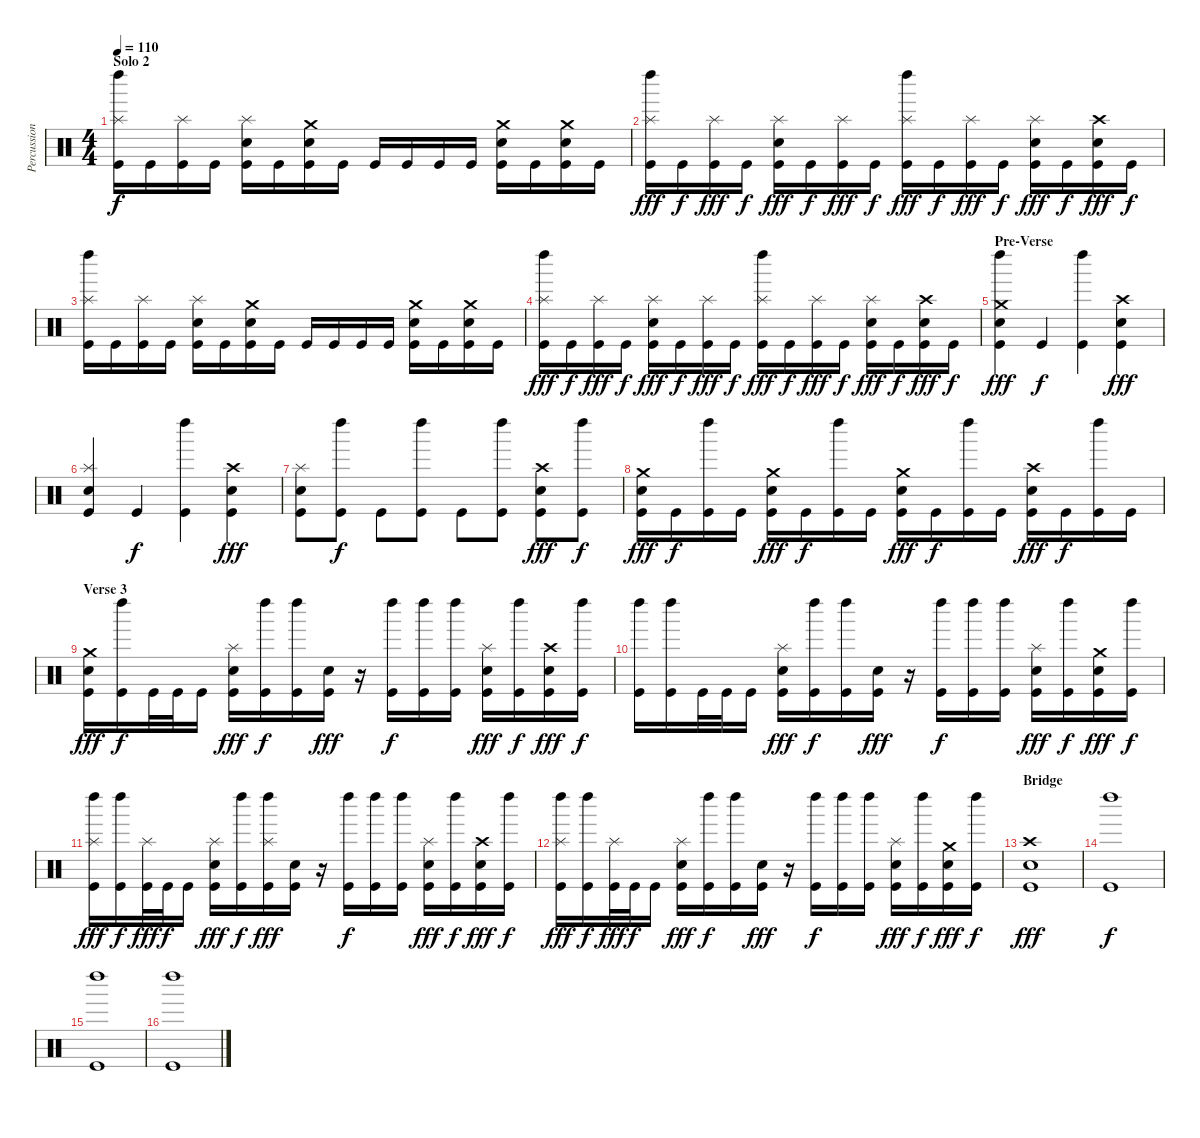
\track ("Percussions" "Percussion") {instrument percussion}
\staff {score}
\articulation defaults
\ts (4 4)
\section ("" "Solo 2")
\tempo 110
\clef neutral
\ks c
("Kick (hit)" "Splash (hit)" "Left Maraca (hit)").16{dy f} "Kick (hit)".16 ("Kick (hit)" "Splash (hit)").16 "Kick (hit)".16 ("Kick (hit)" "Splash (hit)" "Electric Snare (hit)").16 "Kick (hit)".16 ("Kick (hit)" "Electric Snare (hit)" "Crash medium (hit)").16 "Kick (hit)".16 "Kick (hit)".16 "Kick (hit)".16 "Kick (hit)".16 "Kick (hit)".16 ("Kick (hit)" "Electric Snare (hit)" "Crash medium (hit)").16 "Kick (hit)".16 ("Kick (hit)" "Electric Snare (hit)" "Crash medium (hit)").16 "Kick (hit)".16 |
("Kick (hit)" "Splash (hit)" "Left Maraca (hit)").16{dy fff} "Kick (hit)".16{dy f} ("Kick (hit)" "Splash (hit)").16{dy fff} "Kick (hit)".16{dy f} ("Kick (hit)" "Splash (hit)" "Electric Snare (hit)").16{dy fff} "Kick (hit)".16{dy f} ("Kick (hit)" "Splash (hit)").16{dy fff} "Kick (hit)".16{dy f} ("Kick (hit)" "Splash (hit)" "Left Maraca (hit)").16{dy fff} "Kick (hit)".16{dy f} ("Kick (hit)" "Splash (hit)").16{dy fff} "Kick (hit)".16{dy f} ("Kick (hit)" "Splash (hit)" "Electric Snare (hit)").16{dy fff} "Kick (hit)".16{dy f} ("Kick (hit)" "Crash high (hit)" "Electric Snare (hit)").16{dy fff} "Kick (hit)".16{dy f} |
("Kick (hit)" "Splash (hit)" "Left Maraca (hit)").16 "Kick (hit)".16 ("Kick (hit)" "Splash (hit)").16 "Kick (hit)".16 ("Kick (hit)" "Splash (hit)" "Electric Snare (hit)").16 "Kick (hit)".16 ("Kick (hit)" "Electric Snare (hit)" "Crash medium (hit)").16 "Kick (hit)".16 "Kick (hit)".16 "Kick (hit)".16 "Kick (hit)".16 "Kick (hit)".16 ("Kick (hit)" "Electric Snare (hit)" "Crash medium (hit)").16 "Kick (hit)".16 ("Kick (hit)" "Electric Snare (hit)" "Crash medium (hit)").16 "Kick (hit)".16 |
("Kick (hit)" "Splash (hit)" "Left Maraca (hit)").16{dy fff} "Kick (hit)".16{dy f} ("Kick (hit)" "Splash (hit)").16{dy fff} "Kick (hit)".16{dy f} ("Kick (hit)" "Splash (hit)" "Electric Snare (hit)").16{dy fff} "Kick (hit)".16{dy f} ("Kick (hit)" "Splash (hit)").16{dy fff} "Kick (hit)".16{dy f} ("Kick (hit)" "Splash (hit)" "Left Maraca (hit)").16{dy fff} "Kick (hit)".16{dy f} ("Kick (hit)" "Splash (hit)").16{dy fff} "Kick (hit)".16{dy f} ("Kick (hit)" "Splash (hit)" "Electric Snare (hit)").16{dy fff} "Kick (hit)".16{dy f} ("Kick (hit)" "Crash high (hit)" "Electric Snare (hit)").16{dy fff} "Kick (hit)".16{dy f} |
\section ("" "Pre-Verse")
("Kick (hit)" "Left Maraca (hit)" "Electric Snare (hit)" "Crash medium (hit)").4{dy fff} "Kick (hit)".4{dy f} ("Kick (hit)" "Left Maraca (hit)").4 ("Kick (hit)" "Electric Snare (hit)" "Crash high (hit)").4{dy fff} |
("Kick (hit)" "Electric Snare (hit)" "Splash (hit)").4 "Kick (hit)".4{dy f} ("Kick (hit)" "Left Maraca (hit)").4 ("Kick (hit)" "Electric Snare (hit)" "Crash high (hit)").4{dy fff} |
("Kick (hit)" "Electric Snare (hit)" "Splash (hit)").8 ("Kick (hit)" "Left Maraca (hit)").8{dy f} "Kick (hit)".8 ("Kick (hit)" "Left Maraca (hit)").8 "Kick (hit)".8 ("Kick (hit)" "Left Maraca (hit)").8 ("Kick (hit)" "Electric Snare (hit)" "Crash high (hit)").8{dy fff} ("Kick (hit)" "Left Maraca (hit)").8{dy f} |
("Kick (hit)" "Electric Snare (hit)" "Crash medium (hit)").16{dy fff} "Kick (hit)".16{dy f} ("Kick (hit)" "Left Maraca (hit)").16 "Kick (hit)".16 ("Kick (hit)" "Electric Snare (hit)" "Crash medium (hit)").16{dy fff} "Kick (hit)".16{dy f} ("Kick (hit)" "Left Maraca (hit)").16 "Kick (hit)".16 ("Kick (hit)" "Electric Snare (hit)" "Crash medium (hit)").16{dy fff} "Kick (hit)".16{dy f} ("Kick (hit)" "Left Maraca (hit)").16 "Kick (hit)".16 ("Kick (hit)" "Electric Snare (hit)" "Crash high (hit)").16{dy fff} "Kick (hit)".16{dy f} ("Kick (hit)" "Left Maraca (hit)").16 "Kick (hit)".16 |
\section ("" "Verse 3")
("Kick (hit)" "Electric Snare (hit)" "Crash medium (hit)").16{dy fff} ("Kick (hit)" "Left Maraca (hit)").16{dy f} "Kick (hit)".32 "Kick (hit)".32 "Kick (hit)".16 ("Kick (hit)" "Electric Snare (hit)" "Splash (hit)").16{dy fff} ("Kick (hit)" "Left Maraca (hit)").16{dy f} ("Kick (hit)" "Left Maraca (hit)").16 ("Kick (hit)" "Electric Snare (hit)").16{dy fff} r.16 ("Kick (hit)" "Left Maraca (hit)").16{dy f} ("Kick (hit)" "Left Maraca (hit)").16 ("Kick (hit)" "Left Maraca (hit)").16 ("Kick (hit)" "Electric Snare (hit)" "Splash (hit)").16{dy fff} ("Kick (hit)" "Left Maraca (hit)").16{dy f} ("Kick (hit)" "Electric Snare (hit)" "Crash high (hit)").16{dy fff} ("Kick (hit)" "Left Maraca (hit)").16{dy f} |
("Kick (hit)" "Left Maraca (hit)").16 ("Kick (hit)" "Left Maraca (hit)").16 "Kick (hit)".32 "Kick (hit)".32 "Kick (hit)".16 ("Kick (hit)" "Electric Snare (hit)" "Splash (hit)").16{dy fff} ("Kick (hit)" "Left Maraca (hit)").16{dy f} ("Kick (hit)" "Left Maraca (hit)").16 ("Kick (hit)" "Electric Snare (hit)").16{dy fff} r.16 ("Kick (hit)" "Left Maraca (hit)").16{dy f} ("Kick (hit)" "Left Maraca (hit)").16 ("Kick (hit)" "Left Maraca (hit)").16 ("Kick (hit)" "Electric Snare (hit)" "Splash (hit)").16{dy fff} ("Kick (hit)" "Left Maraca (hit)").16{dy f} ("Kick (hit)" "Electric Snare (hit)" "Crash medium (hit)").16{dy fff} ("Kick (hit)" "Left Maraca (hit)").16{dy f} |
("Kick (hit)" "Left Maraca (hit)" "Splash (hit)").16{dy fff} ("Kick (hit)" "Left Maraca (hit)").16{dy f} ("Kick (hit)" "Splash (hit)").32{dy fff} "Kick (hit)".32{dy f} "Kick (hit)".16 ("Kick (hit)" "Electric Snare (hit)" "Splash (hit)").16{dy fff} ("Kick (hit)" "Left Maraca (hit)").16{dy f} ("Kick (hit)" "Left Maraca (hit)" "Splash (hit)").16{dy fff} ("Kick (hit)" "Electric Snare (hit)").16 r.16 ("Kick (hit)" "Left Maraca (hit)").16{dy f} ("Kick (hit)" "Left Maraca (hit)").16 ("Kick (hit)" "Left Maraca (hit)").16 ("Kick (hit)" "Electric Snare (hit)" "Splash (hit)").16{dy fff} ("Kick (hit)" "Left Maraca (hit)").16{dy f} ("Kick (hit)" "Electric Snare (hit)" "Crash high (hit)").16{dy fff} ("Kick (hit)" "Left Maraca (hit)").16{dy f} |
("Kick (hit)" "Left Maraca (hit)" "Splash (hit)").16{dy fff} ("Kick (hit)" "Left Maraca (hit)").16{dy f} ("Kick (hit)" "Splash (hit)").32{dy fff} "Kick (hit)".32{dy f} "Kick (hit)".16 ("Kick (hit)" "Electric Snare (hit)" "Splash (hit)").16{dy fff} ("Kick (hit)" "Left Maraca (hit)").16{dy f} ("Kick (hit)" "Left Maraca (hit)").16 ("Kick (hit)" "Electric Snare (hit)").16{dy fff} r.16 ("Kick (hit)" "Left Maraca (hit)").16{dy f} ("Kick (hit)" "Left Maraca (hit)").16 ("Kick (hit)" "Left Maraca (hit)").16 ("Kick (hit)" "Electric Snare (hit)" "Splash (hit)").16{dy fff} ("Kick (hit)" "Left Maraca (hit)").16{dy f} ("Kick (hit)" "Electric Snare (hit)" "Crash medium (hit)").16{dy fff} ("Kick (hit)" "Left Maraca (hit)").16{dy f} |
\section ("" "Bridge")
("Kick (hit)" "Electric Snare (hit)" "Crash high (hit)").1{dy fff} |
("Kick (hit)" "Left Maraca (hit)").1{dy f} |
("Kick (hit)" "Left Maraca (hit)").1 |
("Kick (hit)" "Left Maraca (hit)").1
